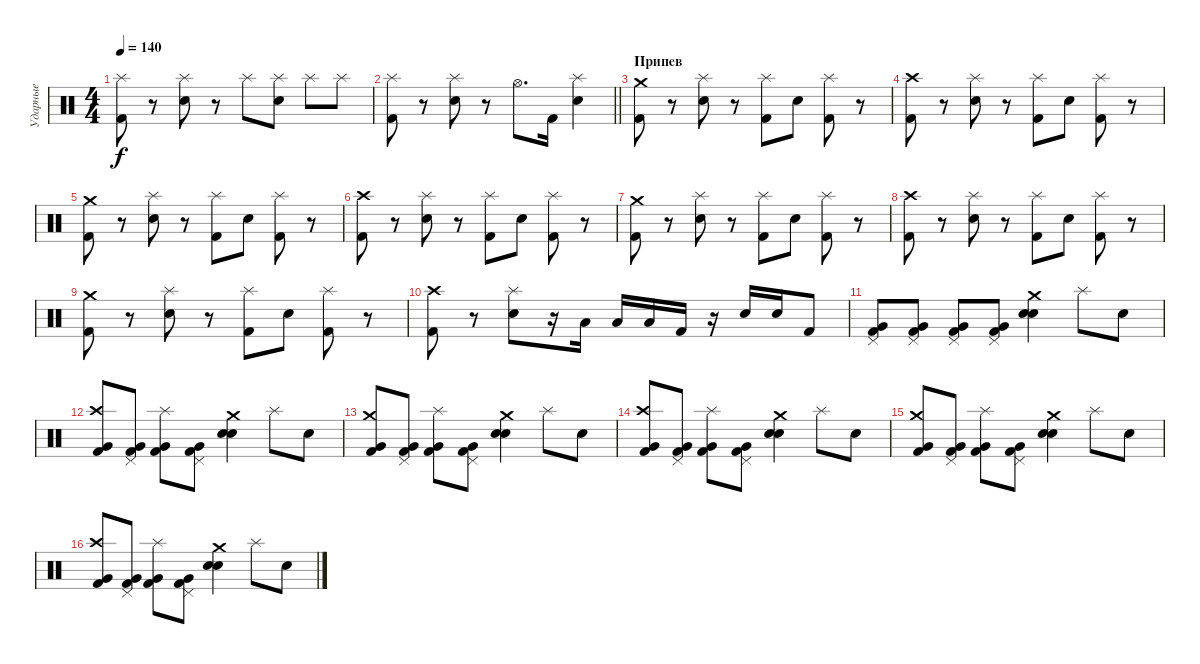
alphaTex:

\track ("Ударные" "Ударные") {instrument percussion}
\staff {score}
\articulation defaults
\ts (4 4)
\tempo 140
\clef neutral
\ks c
("Splash (hit)" "Kick (hit) 2").8{dy f} r.8 ("Splash (hit)" "Electric Snare (hit)").8 r.8 "Splash (hit)".8 ("Splash (hit)" "Electric Snare (hit)").8 "Splash (hit)".8 "Splash (hit)".8 |
\barLineRight lightlight
("Splash (hit)" "Kick (hit) 2").8 r.8 ("Splash (hit)" "Electric Snare (hit)").8 r.8 "Hi-Hat (open)".8{d} "Kick (hit) 2".16 ("Splash (hit)" "Electric Snare (hit)").4 |
\section ("" "Припев")
("Crash medium (hit)" "Kick (hit) 2").8 r.8 ("Splash (hit)" "Electric Snare (hit)").8 r.8 ("Splash (hit)" "Kick (hit) 2").8 "Electric Snare (hit)".8 ("Splash (hit)" "Kick (hit) 2").8 r.8 |
("Crash high (hit)" "Kick (hit) 2").8 r.8 ("Splash (hit)" "Electric Snare (hit)").8 r.8 ("Splash (hit)" "Kick (hit) 2").8 "Electric Snare (hit)".8 ("Splash (hit)" "Kick (hit) 2").8 r.8 |
("Crash medium (hit)" "Kick (hit) 2").8 r.8 ("Splash (hit)" "Electric Snare (hit)").8 r.8 ("Splash (hit)" "Kick (hit) 2").8 "Electric Snare (hit)".8 ("Splash (hit)" "Kick (hit) 2").8 r.8 |
("Crash high (hit)" "Kick (hit) 2").8 r.8 ("Splash (hit)" "Electric Snare (hit)").8 r.8 ("Splash (hit)" "Kick (hit) 2").8 "Electric Snare (hit)".8 ("Splash (hit)" "Kick (hit) 2").8 r.8 |
("Crash medium (hit)" "Kick (hit) 2").8 r.8 ("Splash (hit)" "Electric Snare (hit)").8 r.8 ("Splash (hit)" "Kick (hit) 2").8 "Electric Snare (hit)".8 ("Splash (hit)" "Kick (hit) 2").8 r.8 |
("Crash high (hit)" "Kick (hit) 2").8 r.8 ("Splash (hit)" "Electric Snare (hit)").8 r.8 ("Splash (hit)" "Kick (hit) 2").8 "Electric Snare (hit)".8 ("Splash (hit)" "Kick (hit) 2").8 r.8 |
("Crash medium (hit)" "Kick (hit) 2").8 r.8 ("Splash (hit)" "Electric Snare (hit)").8 r.8 ("Splash (hit)" "Kick (hit) 2").8 "Electric Snare (hit)".8 ("Splash (hit)" "Kick (hit) 2").8 r.8 |
("Crash high (hit)" "Kick (hit) 2").8 r.8 ("Splash (hit)" "Electric Snare (hit)").8 r.16 "Low Tom (hit)".16 "Low Tom (hit)".16 "Low Tom (hit)".16 "Kick (hit) 2".16 r.16 "Electric Snare (hit)".16 "Electric Snare (hit)".16 "Kick (hit) 2".8 |
("Pedal Hi-Hat (hit)" "Very Low Tom (hit)" "Kick (hit) 2").8 ("Pedal Hi-Hat (hit)" "Very Low Tom (hit)" "Kick (hit) 2").8 ("Pedal Hi-Hat (hit)" "Very Low Tom (hit)" "Kick (hit) 2").8 ("Pedal Hi-Hat (hit)" "Very Low Tom (hit)" "Kick (hit) 2").8 ("Crash medium (hit)" "Electric Snare (hit)" "Snare (hit) 2").4 "Splash (hit)".8 "Electric Snare (hit)".8 |
("Crash high (hit)" "Very Low Tom (hit)" "Kick (hit) 2").8 ("Pedal Hi-Hat (hit)" "Very Low Tom (hit)" "Kick (hit) 2").8 ("Splash (hit)" "Very Low Tom (hit)" "Kick (hit) 2").8 ("Pedal Hi-Hat (hit)" "Very Low Tom (hit)" "Kick (hit) 2").8 ("Crash medium (hit)" "Electric Snare (hit)" "Snare (hit) 2").4 "Splash (hit)".8 "Electric Snare (hit)".8 |
("Crash medium (hit)" "Very Low Tom (hit)" "Kick (hit) 2").8 ("Pedal Hi-Hat (hit)" "Very Low Tom (hit)" "Kick (hit) 2").8 ("Splash (hit)" "Very Low Tom (hit)" "Kick (hit) 2").8 ("Pedal Hi-Hat (hit)" "Very Low Tom (hit)" "Kick (hit) 2").8 ("Crash medium (hit)" "Electric Snare (hit)" "Snare (hit) 2").4 "Splash (hit)".8 "Electric Snare (hit)".8 |
("Crash high (hit)" "Very Low Tom (hit)" "Kick (hit) 2").8 ("Pedal Hi-Hat (hit)" "Very Low Tom (hit)" "Kick (hit) 2").8 ("Splash (hit)" "Very Low Tom (hit)" "Kick (hit) 2").8 ("Pedal Hi-Hat (hit)" "Very Low Tom (hit)" "Kick (hit) 2").8 ("Crash medium (hit)" "Electric Snare (hit)" "Snare (hit) 2").4 "Splash (hit)".8 "Electric Snare (hit)".8 |
("Crash medium (hit)" "Very Low Tom (hit)" "Kick (hit) 2").8 ("Pedal Hi-Hat (hit)" "Very Low Tom (hit)" "Kick (hit) 2").8 ("Splash (hit)" "Very Low Tom (hit)" "Kick (hit) 2").8 ("Pedal Hi-Hat (hit)" "Very Low Tom (hit)" "Kick (hit) 2").8 ("Crash medium (hit)" "Electric Snare (hit)" "Snare (hit) 2").4 "Splash (hit)".8 "Electric Snare (hit)".8 |
("Crash high (hit)" "Very Low Tom (hit)" "Kick (hit) 2").8 ("Pedal Hi-Hat (hit)" "Very Low Tom (hit)" "Kick (hit) 2").8 ("Splash (hit)" "Very Low Tom (hit)" "Kick (hit) 2").8 ("Pedal Hi-Hat (hit)" "Very Low Tom (hit)" "Kick (hit) 2").8 ("Crash medium (hit)" "Electric Snare (hit)" "Snare (hit) 2").4 "Splash (hit)".8 "Electric Snare (hit)".8
